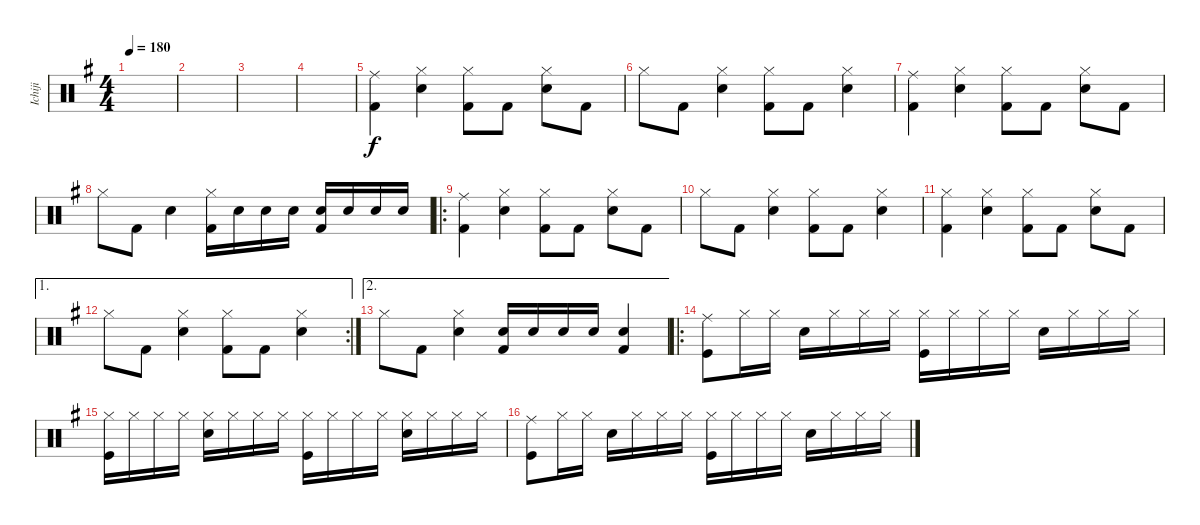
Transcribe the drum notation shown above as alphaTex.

\track ("Ichiji" "Ichiji") {instrument percussion}
\staff {score}
\articulation defaults
\ts (4 4)
\tempo 180
\clef neutral
\ks g
|
|
|
|
("Ride (middle)" "Kick (hit) 2").4 ("Hi-Hat (closed)" "Snare (hit) 2").4 ("Hi-Hat (closed)" "Kick (hit) 2").8 "Kick (hit) 2".8 ("Hi-Hat (closed)" "Snare (hit) 2").8 "Kick (hit) 2".8 |
"Hi-Hat (closed)".8 "Kick (hit) 2".8 ("Hi-Hat (closed)" "Snare (hit) 2").4 ("Hi-Hat (closed)" "Kick (hit) 2").8 "Kick (hit) 2".8 ("Hi-Hat (closed)" "Snare (hit) 2").4 |
("Ride (middle)" "Kick (hit) 2").4 ("Hi-Hat (closed)" "Snare (hit) 2").4 ("Hi-Hat (closed)" "Kick (hit) 2").8 "Kick (hit) 2".8 ("Hi-Hat (closed)" "Snare (hit) 2").8 "Kick (hit) 2".8 |
"Hi-Hat (closed)".8 "Kick (hit) 2".8 "Snare (hit) 2".4 ("Hi-Hat (closed)" "Kick (hit) 2").16 "Snare (hit) 2".16 "Snare (hit) 2".16 "Snare (hit) 2".16 ("Snare (hit) 2" "Kick (hit) 2").16 "Snare (hit) 2".16 "Snare (hit) 2".16 "Snare (hit) 2".16 |
\ro
("Ride (middle)" "Kick (hit) 2").4 ("Hi-Hat (closed)" "Snare (hit) 2").4 ("Hi-Hat (closed)" "Kick (hit) 2").8 "Kick (hit) 2".8 ("Hi-Hat (closed)" "Snare (hit) 2").8 "Kick (hit) 2".8 |
"Hi-Hat (closed)".8 "Kick (hit) 2".8 ("Hi-Hat (closed)" "Snare (hit) 2").4 ("Hi-Hat (closed)" "Kick (hit) 2").8 "Kick (hit) 2".8 ("Hi-Hat (closed)" "Snare (hit) 2").4 |
("Hi-Hat (closed)" "Kick (hit) 2").4 ("Hi-Hat (closed)" "Snare (hit) 2").4 ("Hi-Hat (closed)" "Kick (hit) 2").8 "Kick (hit) 2".8 ("Hi-Hat (closed)" "Snare (hit) 2").8 "Kick (hit) 2".8 |
\ae 1
\rc 2 "Hi-Hat (closed)".8 "Kick (hit) 2".8
("Hi-Hat (closed)" "Snare (hit) 2").4 ("Hi-Hat (closed)" "Kick (hit) 2").8 "Kick (hit) 2".8 ("Hi-Hat (closed)" "Snare (hit) 2").4 |
\ae 2 "Hi-Hat (closed)".8 "Kick (hit) 2".8
("Hi-Hat (closed)" "Snare (hit) 2").4 ("Snare (hit) 2" "Kick (hit) 2").16 "Snare (hit) 2".16 "Snare (hit) 2".16 "Snare (hit) 2".16 ("Snare (hit) 2" "Kick (hit) 2").4 |
\ro
("Ride (middle)" "Kick (hit)").8 "Hi-Hat (closed)".16 "Hi-Hat (closed)".16 "Snare (hit) 2".16 "Hi-Hat (closed)".16 "Hi-Hat (closed)".16 "Hi-Hat (closed)".16 ("Hi-Hat (closed)" "Kick (hit)").16 "Hi-Hat (closed)".16 "Hi-Hat (closed)".16 "Hi-Hat (closed)".16 "Snare (hit) 2".16 "Hi-Hat (closed)".16 "Hi-Hat (closed)".16 "Hi-Hat (closed)".16 |
("Hi-Hat (closed)" "Kick (hit)").16 "Hi-Hat (closed)".16 "Hi-Hat (closed)".16 "Hi-Hat (closed)".16 ("Hi-Hat (closed)" "Snare (hit) 2").16 "Hi-Hat (closed)".16 "Hi-Hat (closed)".16 "Hi-Hat (closed)".16 ("Hi-Hat (closed)" "Kick (hit)").16 "Hi-Hat (closed)".16 "Hi-Hat (closed)".16 "Hi-Hat (closed)".16 ("Hi-Hat (closed)" "Snare (hit) 2").16 "Hi-Hat (closed)".16 "Hi-Hat (closed)".16 "Hi-Hat (closed)".16 |
("Ride (middle)" "Kick (hit)").8 "Hi-Hat (closed)".16 "Hi-Hat (closed)".16 "Snare (hit) 2".16 "Hi-Hat (closed)".16 "Hi-Hat (closed)".16 "Hi-Hat (closed)".16 ("Hi-Hat (closed)" "Kick (hit)").16 "Hi-Hat (closed)".16 "Hi-Hat (closed)".16 "Hi-Hat (closed)".16 "Snare (hit) 2".16 "Hi-Hat (closed)".16 "Hi-Hat (closed)".16 "Hi-Hat (closed)".16
